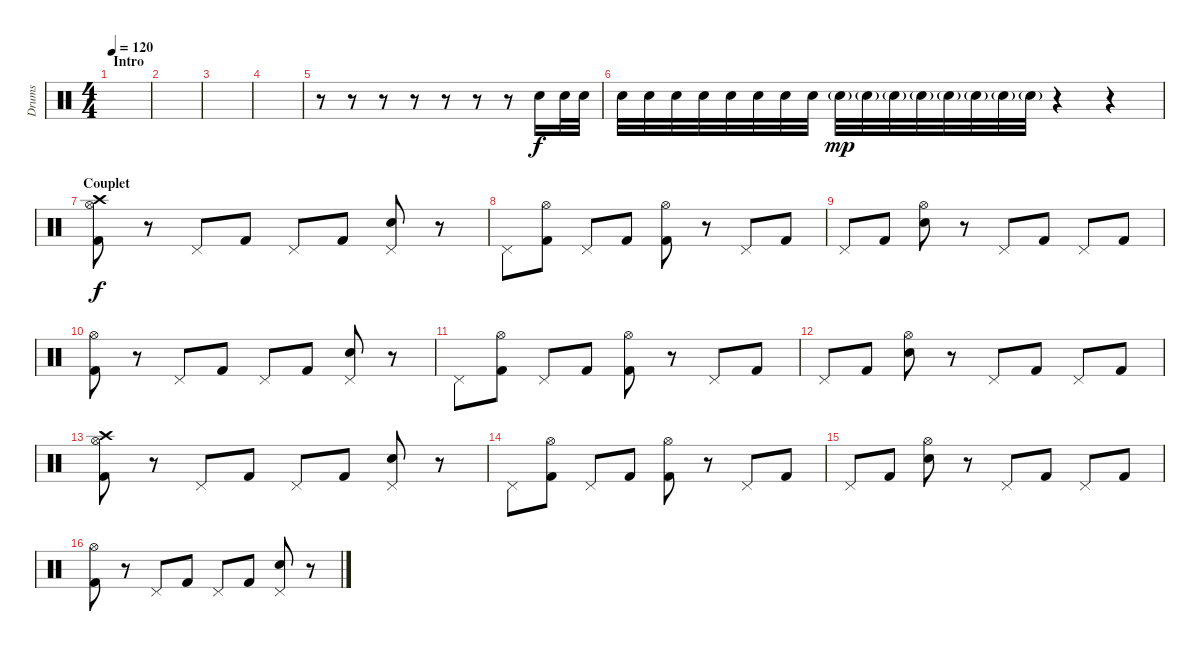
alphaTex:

\track ("Drums" "Drums") {instrument percussion}
\staff {score}
\articulation defaults
\ts (4 4)
\section ("" "Intro")
\tempo 120
\clef neutral
\ks c
|
|
|
|
r.8 r.8 r.8 r.8 r.8 r.8 r.8 "Snare (hit) 2".16 "Snare (hit) 2".32 "Snare (hit) 2".32 |
"Snare (hit) 2".32 "Snare (hit) 2".32 "Snare (hit) 2".32 "Snare (hit) 2".32 "Snare (hit) 2".32 "Snare (hit) 2".32 "Snare (hit) 2".32 "Snare (hit) 2".32 "Snare (hit) 2"{g}.32{dy mp} "Snare (hit) 2"{g}.32 "Snare (hit) 2"{g}.32 "Snare (hit) 2"{g}.32 "Snare (hit) 2"{g}.32 "Snare (hit) 2"{g}.32 "Snare (hit) 2"{g}.32 "Snare (hit) 2"{g}.32 r.4 r.4 |
\section ("" "Couplet")
("Crash high (hit)" "Hi-Hat (open)" "Kick (hit) 2").8{dy f} r.8 "Pedal Hi-Hat (hit)".8 "Kick (hit) 2".8 "Pedal Hi-Hat (hit)".8 "Kick (hit) 2".8 ("Pedal Hi-Hat (hit)" "Snare (hit) 2").8 r.8 |
"Pedal Hi-Hat (hit)".8 ("Hi-Hat (open)" "Kick (hit) 2").8 "Pedal Hi-Hat (hit)".8 "Kick (hit) 2".8 ("Hi-Hat (open)" "Kick (hit) 2").8 r.8 "Pedal Hi-Hat (hit)".8 "Kick (hit) 2".8 |
"Pedal Hi-Hat (hit)".8 "Kick (hit) 2".8 ("Hi-Hat (open)" "Snare (hit) 2").8 r.8 "Pedal Hi-Hat (hit)".8 "Kick (hit) 2".8 "Pedal Hi-Hat (hit)".8 "Kick (hit) 2".8 |
("Hi-Hat (open)" "Kick (hit) 2").8 r.8 "Pedal Hi-Hat (hit)".8 "Kick (hit) 2".8 "Pedal Hi-Hat (hit)".8 "Kick (hit) 2".8 ("Pedal Hi-Hat (hit)" "Snare (hit) 2").8 r.8 |
"Pedal Hi-Hat (hit)".8 ("Hi-Hat (open)" "Kick (hit) 2").8 "Pedal Hi-Hat (hit)".8 "Kick (hit) 2".8 ("Hi-Hat (open)" "Kick (hit) 2").8 r.8 "Pedal Hi-Hat (hit)".8 "Kick (hit) 2".8 |
"Pedal Hi-Hat (hit)".8 "Kick (hit) 2".8 ("Hi-Hat (open)" "Snare (hit) 2").8 r.8 "Pedal Hi-Hat (hit)".8 "Kick (hit) 2".8 "Pedal Hi-Hat (hit)".8 "Kick (hit) 2".8 |
("Crash high (hit)" "Hi-Hat (open)" "Kick (hit) 2").8 r.8 "Pedal Hi-Hat (hit)".8 "Kick (hit) 2".8 "Pedal Hi-Hat (hit)".8 "Kick (hit) 2".8 ("Pedal Hi-Hat (hit)" "Snare (hit) 2").8 r.8 |
"Pedal Hi-Hat (hit)".8 ("Hi-Hat (open)" "Kick (hit) 2").8 "Pedal Hi-Hat (hit)".8 "Kick (hit) 2".8 ("Hi-Hat (open)" "Kick (hit) 2").8 r.8 "Pedal Hi-Hat (hit)".8 "Kick (hit) 2".8 |
"Pedal Hi-Hat (hit)".8 "Kick (hit) 2".8 ("Hi-Hat (open)" "Snare (hit) 2").8 r.8 "Pedal Hi-Hat (hit)".8 "Kick (hit) 2".8 "Pedal Hi-Hat (hit)".8 "Kick (hit) 2".8 |
("Hi-Hat (open)" "Kick (hit) 2").8 r.8 "Pedal Hi-Hat (hit)".8 "Kick (hit) 2".8 "Pedal Hi-Hat (hit)".8 "Kick (hit) 2".8 ("Pedal Hi-Hat (hit)" "Snare (hit) 2").8 r.8
